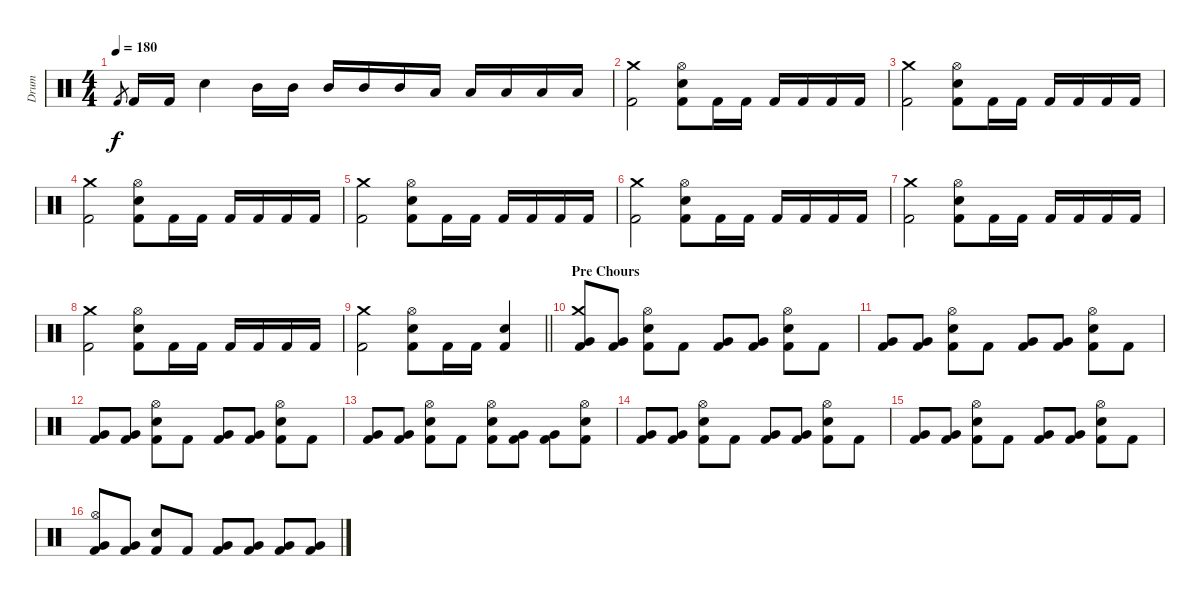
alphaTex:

\track ("Drum" "Drum") {instrument percussion}
\staff
\articulation defaults
\ts (4 4)
\tempo 180
\clef neutral
\ks c "Kick (hit) 2".8{gr dy f} "Kick (hit) 2".16 "Kick (hit) 2".16 "Electric Snare (hit)".4 "Mid Tom (hit)".16 "Mid Tom (hit)".16 "Mid Tom (hit)".16 "Mid Tom (hit)".16 "Mid Tom (hit)".16 "Low Tom (hit)".16 "Low Tom (hit)".16 "Low Tom (hit)".16 "Low Tom (hit)".16 "Low Tom (hit)".16
|
("Crash medium (hit)" "Kick (hit) 2").2 ("Hi-Hat (open)" "Electric Snare (hit)" "Kick (hit) 2").8 "Kick (hit) 2".16 "Kick (hit) 2".16 "Kick (hit) 2".16 "Kick (hit) 2".16 "Kick (hit) 2".16 "Kick (hit) 2".16 |
("Crash medium (hit)" "Kick (hit) 2").2 ("Hi-Hat (open)" "Electric Snare (hit)" "Kick (hit) 2").8 "Kick (hit) 2".16 "Kick (hit) 2".16 "Kick (hit) 2".16 "Kick (hit) 2".16 "Kick (hit) 2".16 "Kick (hit) 2".16 |
("Crash medium (hit)" "Kick (hit) 2").2 ("Hi-Hat (open)" "Electric Snare (hit)" "Kick (hit) 2").8 "Kick (hit) 2".16 "Kick (hit) 2".16 "Kick (hit) 2".16 "Kick (hit) 2".16 "Kick (hit) 2".16 "Kick (hit) 2".16 |
("Crash medium (hit)" "Kick (hit) 2").2 ("Hi-Hat (open)" "Electric Snare (hit)" "Kick (hit) 2").8 "Kick (hit) 2".16 "Kick (hit) 2".16 "Kick (hit) 2".16 "Kick (hit) 2".16 "Kick (hit) 2".16 "Kick (hit) 2".16 |
("Crash medium (hit)" "Kick (hit) 2").2 ("Hi-Hat (open)" "Electric Snare (hit)" "Kick (hit) 2").8 "Kick (hit) 2".16 "Kick (hit) 2".16 "Kick (hit) 2".16 "Kick (hit) 2".16 "Kick (hit) 2".16 "Kick (hit) 2".16 |
("Crash medium (hit)" "Kick (hit) 2").2 ("Hi-Hat (open)" "Electric Snare (hit)" "Kick (hit) 2").8 "Kick (hit) 2".16 "Kick (hit) 2".16 "Kick (hit) 2".16 "Kick (hit) 2".16 "Kick (hit) 2".16 "Kick (hit) 2".16 |
("Crash medium (hit)" "Kick (hit) 2").2 ("Hi-Hat (open)" "Electric Snare (hit)" "Kick (hit) 2").8 "Kick (hit) 2".16 "Kick (hit) 2".16 "Kick (hit) 2".16 "Kick (hit) 2".16 "Kick (hit) 2".16 "Kick (hit) 2".16 |
\barLineRight lightlight
("Crash medium (hit)" "Kick (hit) 2").2 ("Hi-Hat (open)" "Electric Snare (hit)" "Kick (hit) 2").8 "Kick (hit) 2".16 "Kick (hit) 2".16 ("Electric Snare (hit)" "Kick (hit) 2").4 |
\section ("" "Pre Chours")
("Crash medium (hit)" "Very Low Tom (hit)" "Kick (hit) 2").8 ("Very Low Tom (hit)" "Kick (hit) 2").8 ("Hi-Hat (open)" "Electric Snare (hit)" "Kick (hit) 2").8 "Kick (hit) 2".8 ("Very Low Tom (hit)" "Kick (hit) 2").8 ("Very Low Tom (hit)" "Kick (hit) 2").8 ("Hi-Hat (open)" "Electric Snare (hit)" "Kick (hit) 2").8 "Kick (hit) 2".8 |
("Very Low Tom (hit)" "Kick (hit) 2").8 ("Very Low Tom (hit)" "Kick (hit) 2").8 ("Hi-Hat (open)" "Electric Snare (hit)" "Kick (hit) 2").8 "Kick (hit) 2".8 ("Very Low Tom (hit)" "Kick (hit) 2").8 ("Very Low Tom (hit)" "Kick (hit) 2").8 ("Hi-Hat (open)" "Electric Snare (hit)" "Kick (hit) 2").8 "Kick (hit) 2".8 |
("Very Low Tom (hit)" "Kick (hit) 2").8 ("Very Low Tom (hit)" "Kick (hit) 2").8 ("Hi-Hat (open)" "Electric Snare (hit)" "Kick (hit) 2").8 "Kick (hit) 2".8 ("Very Low Tom (hit)" "Kick (hit) 2").8 ("Very Low Tom (hit)" "Kick (hit) 2").8 ("Hi-Hat (open)" "Electric Snare (hit)" "Kick (hit) 2").8 "Kick (hit) 2".8 |
("Very Low Tom (hit)" "Kick (hit) 2").8 ("Very Low Tom (hit)" "Kick (hit) 2").8 ("Hi-Hat (open)" "Electric Snare (hit)" "Kick (hit) 2").8 "Kick (hit) 2".8 ("Hi-Hat (open)" "Electric Snare (hit)" "Kick (hit) 2").8 ("Very Low Tom (hit)" "Kick (hit) 2").8 ("Very Low Tom (hit)" "Kick (hit) 2").8 ("Hi-Hat (open)" "Electric Snare (hit)" "Kick (hit) 2").8 |
("Very Low Tom (hit)" "Kick (hit) 2").8 ("Very Low Tom (hit)" "Kick (hit) 2").8 ("Hi-Hat (open)" "Electric Snare (hit)" "Kick (hit) 2").8 "Kick (hit) 2".8 ("Very Low Tom (hit)" "Kick (hit) 2").8 ("Very Low Tom (hit)" "Kick (hit) 2").8 ("Hi-Hat (open)" "Electric Snare (hit)" "Kick (hit) 2").8 "Kick (hit) 2".8 |
("Very Low Tom (hit)" "Kick (hit) 2").8 ("Very Low Tom (hit)" "Kick (hit) 2").8 ("Hi-Hat (open)" "Electric Snare (hit)" "Kick (hit) 2").8 "Kick (hit) 2".8 ("Very Low Tom (hit)" "Kick (hit) 2").8 ("Very Low Tom (hit)" "Kick (hit) 2").8 ("Hi-Hat (open)" "Electric Snare (hit)" "Kick (hit) 2").8 "Kick (hit) 2".8 |
("Hi-Hat (open)" "Very Low Tom (hit)" "Kick (hit) 2").8 ("Very Low Tom (hit)" "Kick (hit) 2").8 ("Electric Snare (hit)" "Kick (hit) 2").8 "Kick (hit) 2".8 ("Very Low Tom (hit)" "Kick (hit) 2").8 ("Very Low Tom (hit)" "Kick (hit) 2").8 ("Very Low Tom (hit)" "Kick (hit) 2").8 ("Very Low Tom (hit)" "Kick (hit) 2").8
